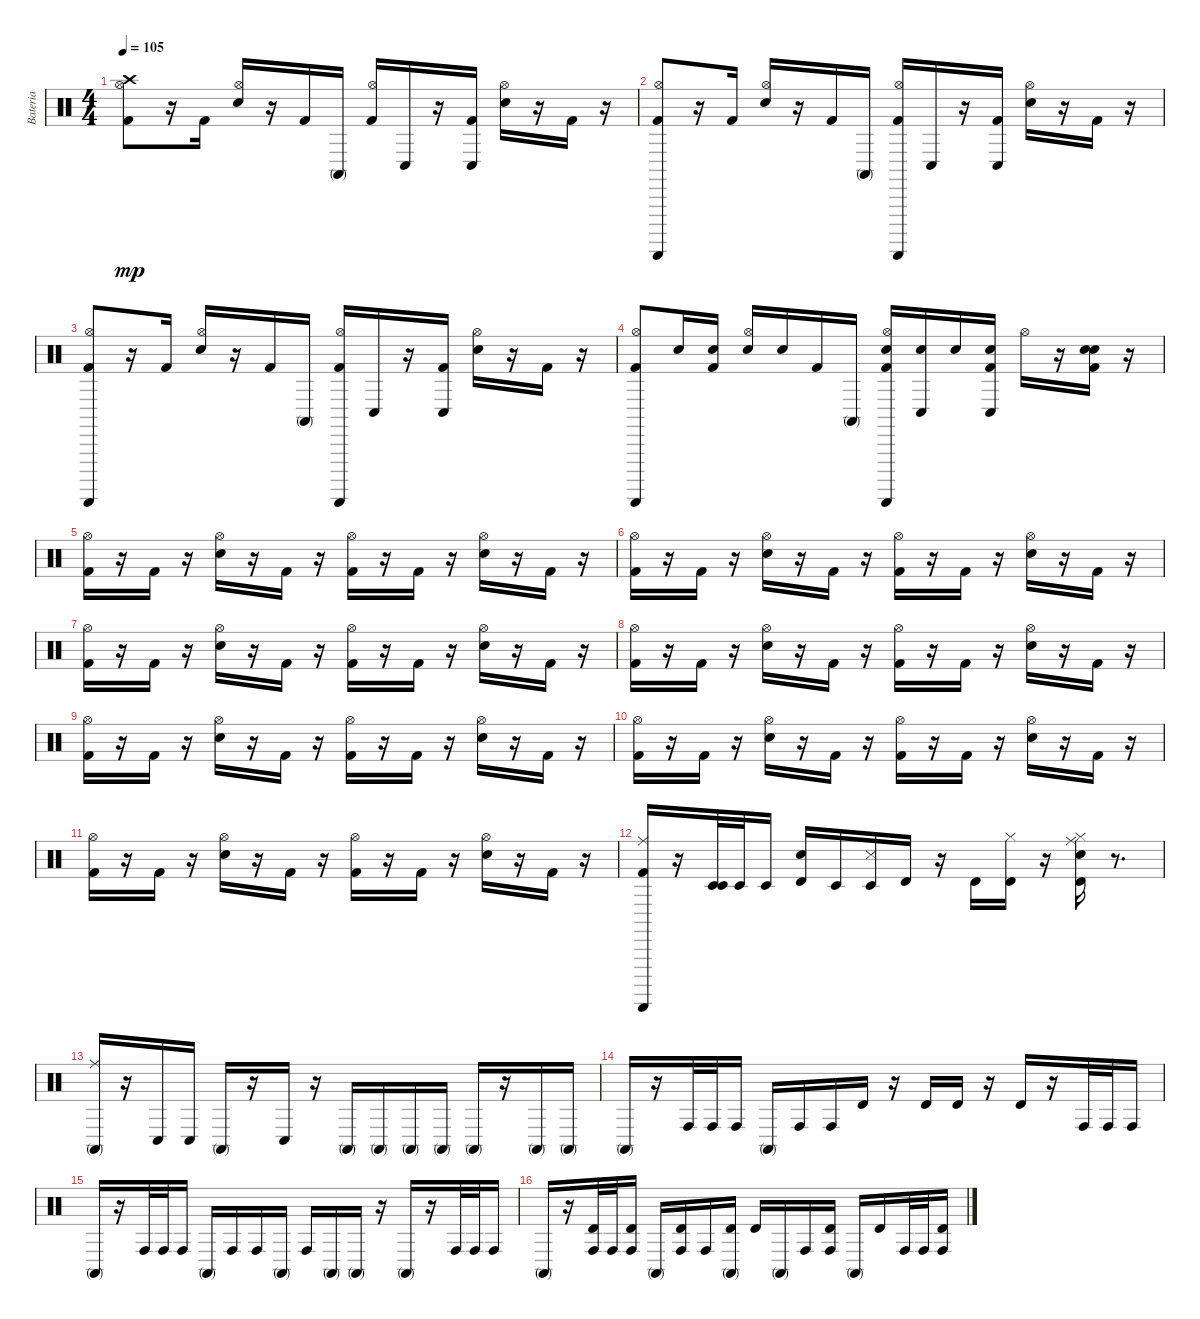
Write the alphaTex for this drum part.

\track ("Bateria" "Bateria") {instrument percussion}
\staff {score}
\articulation defaults
\ts (4 4)
\tempo 105
\clef neutral
\ks c
("Kick (hit) 2" "Crash high (hit)" "Hi-Hat (open)").8{dy mp} r.16 "Kick (hit) 2".16 ("Electric Snare (hit)" "Hi-Hat (open)").16 r.16 "Kick (hit) 2".16 "Conga high (mute)".16 ("Kick (hit) 2" "Hi-Hat (open)").16 "Conga low (hit)".16 r.16 ("Conga low (hit)" "Kick (hit) 2").16 ("Electric Snare (hit)" "Hi-Hat (open)").16 r.16 "Kick (hit) 2".16 r.16 |
("Kick (hit) 2" "Guiro (scrap-return)" "Hi-Hat (open)").8 r.16 "Kick (hit) 2".16 ("Electric Snare (hit)" "Hi-Hat (open)").16 r.16 "Kick (hit) 2".16 "Conga high (mute)".16 ("Kick (hit) 2" "Guiro (scrap-return)" "Hi-Hat (open)").16 "Conga low (hit)".16 r.16 ("Conga low (hit)" "Kick (hit) 2").16 ("Electric Snare (hit)" "Hi-Hat (open)").16 r.16 "Kick (hit) 2".16 r.16 |
("Kick (hit) 2" "Guiro (scrap-return)" "Hi-Hat (open)").8 r.16 "Kick (hit) 2".16 ("Electric Snare (hit)" "Hi-Hat (open)").16 r.16 "Kick (hit) 2".16 "Conga high (mute)".16 ("Kick (hit) 2" "Guiro (scrap-return)" "Hi-Hat (open)").16 "Conga low (hit)".16 r.16 ("Conga low (hit)" "Kick (hit) 2").16 ("Electric Snare (hit)" "Hi-Hat (open)").16 r.16 "Kick (hit) 2".16 r.16 |
("Kick (hit) 2" "Guiro (scrap-return)" "Hi-Hat (open)").8 "Electric Snare (hit)".16 ("Kick (hit) 2" "Electric Snare (hit)").16 ("Electric Snare (hit)" "Hi-Hat (open)").16 "Electric Snare (hit)".16 "Kick (hit) 2".16 "Conga high (mute)".16 ("Kick (hit) 2" "Guiro (scrap-return)" "Hi-Hat (open)" "Electric Snare (hit)").16 ("Conga low (hit)" "Electric Snare (hit)").16 "Electric Snare (hit)".16 ("Conga low (hit)" "Kick (hit) 2" "Electric Snare (hit)").16 "Hi-Hat (open)".16 r.16 ("Electric Snare (hit)" "Kick (hit) 2" "Electric Snare (hit)").16 r.16 |
("Kick (hit) 2" "Hi-Hat (open)").16 r.16 "Kick (hit) 2".16 r.16 ("Electric Snare (hit)" "Hi-Hat (open)").16 r.16 "Kick (hit) 2".16 r.16 ("Kick (hit) 2" "Hi-Hat (open)").16 r.16 "Kick (hit) 2".16 r.16 ("Electric Snare (hit)" "Hi-Hat (open)").16 r.16 "Kick (hit) 2".16 r.16 |
("Kick (hit) 2" "Hi-Hat (open)").16 r.16 "Kick (hit) 2".16 r.16 ("Electric Snare (hit)" "Hi-Hat (open)").16 r.16 "Kick (hit) 2".16 r.16 ("Kick (hit) 2" "Hi-Hat (open)").16 r.16 "Kick (hit) 2".16 r.16 ("Electric Snare (hit)" "Hi-Hat (open)").16 r.16 "Kick (hit) 2".16 r.16 |
("Kick (hit) 2" "Hi-Hat (open)").16 r.16 "Kick (hit) 2".16 r.16 ("Electric Snare (hit)" "Hi-Hat (open)").16 r.16 "Kick (hit) 2".16 r.16 ("Kick (hit) 2" "Hi-Hat (open)").16 r.16 "Kick (hit) 2".16 r.16 ("Electric Snare (hit)" "Hi-Hat (open)").16 r.16 "Kick (hit) 2".16 r.16 |
("Kick (hit) 2" "Hi-Hat (open)").16 r.16 "Kick (hit) 2".16 r.16 ("Electric Snare (hit)" "Hi-Hat (open)").16 r.16 "Kick (hit) 2".16 r.16 ("Kick (hit) 2" "Hi-Hat (open)").16 r.16 "Kick (hit) 2".16 r.16 ("Electric Snare (hit)" "Hi-Hat (open)").16 r.16 "Kick (hit) 2".16 r.16 |
("Kick (hit) 2" "Hi-Hat (open)").16 r.16 "Kick (hit) 2".16 r.16 ("Electric Snare (hit)" "Hi-Hat (open)").16 r.16 "Kick (hit) 2".16 r.16 ("Kick (hit) 2" "Hi-Hat (open)").16 r.16 "Kick (hit) 2".16 r.16 ("Electric Snare (hit)" "Hi-Hat (open)").16 r.16 "Kick (hit) 2".16 r.16 |
("Kick (hit) 2" "Hi-Hat (open)").16 r.16 "Kick (hit) 2".16 r.16 ("Electric Snare (hit)" "Hi-Hat (open)").16 r.16 "Kick (hit) 2".16 r.16 ("Kick (hit) 2" "Hi-Hat (open)").16 r.16 "Kick (hit) 2".16 r.16 ("Electric Snare (hit)" "Hi-Hat (open)").16 r.16 "Kick (hit) 2".16 r.16 |
("Kick (hit) 2" "Hi-Hat (open)").16 r.16 "Kick (hit) 2".16 r.16 ("Electric Snare (hit)" "Hi-Hat (open)").16 r.16 "Kick (hit) 2".16 r.16 ("Kick (hit) 2" "Hi-Hat (open)").16 r.16 "Kick (hit) 2".16 r.16 ("Electric Snare (hit)" "Hi-Hat (open)").16 r.16 "Kick (hit) 2".16 r.16 |
("Kick (hit) 2" "Guiro (scrap-return)" "Ride (middle)").16 r.16 ("Timbale low (hit)" "Timbale low (hit)").32 "Timbale low (hit)".32 "Timbale low (hit)".16 ("Timbale high (hit)" "Electric Snare (hit)").16 "Timbale low (hit)".16 ("Timbale low (hit)" "Snare (side stick) 3").16 "Timbale high (hit)".16 r.16 "Timbale high (hit)".16 ("Timbale high (hit)" "Hi-Hat (closed)").16 r.16 ("Timbale high (hit)" "Ride (middle)" "Electric Snare (hit)" "Hi-Hat (closed)").16 r.8{d} |
("Ride (middle)" "Conga high (mute)").16 r.16 "Conga low (hit)".16 "Conga low (hit)".16 "Conga high (mute)".16 r.16 "Conga low (hit)".16 r.16 "Conga high (mute)".16 "Conga high (mute)".16 "Conga high (mute)".16 "Conga high (mute)".16 "Conga high (mute)".16 r.16 "Conga high (mute)".16 "Conga high (mute)".16 |
"Conga high (mute)".16 r.16 "Conga high (hit)".32 "Conga high (hit)".32 "Conga high (hit)".16 "Conga high (mute)".16 "Conga high (hit)".16 "Conga high (hit)".16 "Timbale high (hit)".16 r.16 "Timbale high (hit)".16 "Timbale high (hit)".16 r.16 "Timbale high (hit)".16 r.16 "Conga high (hit)".32 "Conga high (hit)".32 "Conga high (hit)".16 |
"Conga high (mute)".16 r.16 "Conga high (hit)".32 "Conga high (hit)".32 "Conga high (hit)".16 "Conga high (mute)".16 "Conga high (hit)".16 "Conga high (hit)".16 "Conga high (mute)".16 "Conga high (hit)".16 "Conga high (mute)".16 "Conga high (mute)".16 r.16 "Conga high (mute)".16 r.16 "Conga high (hit)".32 "Conga high (hit)".32 "Conga high (hit)".16 |
"Conga high (mute)".16 r.16 ("Conga high (hit)" "Timbale high (hit)").32 "Conga high (hit)".32 ("Conga high (hit)" "Timbale high (hit)").16 "Conga high (mute)".16 ("Conga high (hit)" "Timbale high (hit)").16 "Conga high (hit)".16 ("Conga high (mute)" "Timbale high (hit)").16 "Timbale high (hit)".16 "Conga high (mute)".16 "Conga high (hit)".16 ("Conga high (hit)" "Timbale high (hit)").16 "Conga high (mute)".16 "Timbale high (hit)".16 "Conga high (hit)".32 "Conga high (hit)".32 ("Conga high (hit)" "Timbale high (hit)").16
